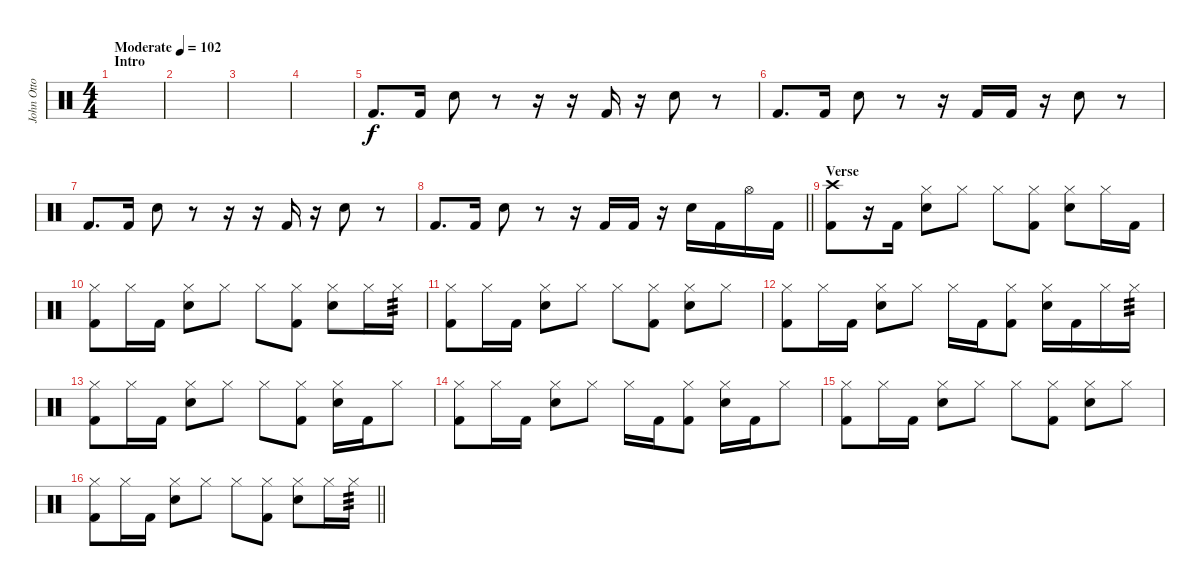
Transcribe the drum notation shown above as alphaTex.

\track ("John Otto (Drums)" "John Otto ") {instrument percussion}
\staff {score}
\articulation defaults
\ts (4 4)
\section ("" "Intro")
\tempo (102 "Moderate")
\clef neutral
\ks c
|
|
|
|
"Kick (hit) 2".8{d} "Kick (hit) 2".16 "Snare (hit) 2".8 r.8 r.16 r.16 "Kick (hit) 2".16 r.16 "Snare (hit) 2".8 r.8 |
"Kick (hit) 2".8{d} "Kick (hit) 2".16 "Snare (hit) 2".8 r.8 r.16 "Kick (hit) 2".16 "Kick (hit) 2".16 r.16 "Snare (hit) 2".8 r.8 |
"Kick (hit) 2".8{d} "Kick (hit) 2".16 "Snare (hit) 2".8 r.8 r.16 r.16 "Kick (hit) 2".16 r.16 "Snare (hit) 2".8 r.8 |
\barLineRight lightlight "Kick (hit) 2".8{d} "Kick (hit) 2".16 "Snare (hit) 2".8
r.8 r.16 "Kick (hit) 2".16 "Kick (hit) 2".16 r.16 "Snare (hit) 2".16 "Kick (hit) 2".16 "Hi-Hat (open)".16 "Kick (hit) 2".16 |
\section ("" "Verse")
("Crash high (hit)" "Kick (hit) 2").8{dy f} r.16 "Kick (hit) 2".16 ("Hi-Hat (closed)" "Snare (hit) 2").8 "Hi-Hat (closed)".8 "Hi-Hat (closed)".8 ("Hi-Hat (closed)" "Kick (hit) 2").8 ("Hi-Hat (closed)" "Snare (hit) 2").8 "Hi-Hat (closed)".16 "Kick (hit) 2".16 |
("Hi-Hat (closed)" "Kick (hit) 2").8 "Hi-Hat (closed)".16 "Kick (hit) 2".16 ("Hi-Hat (closed)" "Snare (hit) 2").8 "Hi-Hat (closed)".8 "Hi-Hat (closed)".8 ("Hi-Hat (closed)" "Kick (hit) 2").8 ("Hi-Hat (closed)" "Snare (hit) 2").8 "Hi-Hat (closed)".16 "Hi-Hat (closed)".16{tp 3} |
("Hi-Hat (closed)" "Kick (hit) 2").8 "Hi-Hat (closed)".16 "Kick (hit) 2".16 ("Hi-Hat (closed)" "Snare (hit) 2").8 "Hi-Hat (closed)".8 "Hi-Hat (closed)".8 ("Hi-Hat (closed)" "Kick (hit) 2").8 ("Hi-Hat (closed)" "Snare (hit) 2").8 "Hi-Hat (closed)".8 |
("Hi-Hat (closed)" "Kick (hit) 2").8 "Hi-Hat (closed)".16 "Kick (hit) 2".16 ("Hi-Hat (closed)" "Snare (hit) 2").8 "Hi-Hat (closed)".8 "Hi-Hat (closed)".16 "Kick (hit) 2".16 ("Hi-Hat (closed)" "Kick (hit) 2").8 ("Hi-Hat (closed)" "Snare (hit) 2").16 "Kick (hit) 2".16 "Hi-Hat (closed)".16 "Hi-Hat (closed)".16{tp 3} |
("Hi-Hat (closed)" "Kick (hit) 2").8 "Hi-Hat (closed)".16 "Kick (hit) 2".16 ("Hi-Hat (closed)" "Snare (hit) 2").8 "Hi-Hat (closed)".8 "Hi-Hat (closed)".8 ("Hi-Hat (closed)" "Kick (hit) 2").8 ("Hi-Hat (closed)" "Snare (hit) 2").16 "Kick (hit) 2".16 "Hi-Hat (closed)".8 |
("Hi-Hat (closed)" "Kick (hit) 2").8 "Hi-Hat (closed)".16 "Kick (hit) 2".16 ("Hi-Hat (closed)" "Snare (hit) 2").8 "Hi-Hat (closed)".8 "Hi-Hat (closed)".16 "Kick (hit) 2".16 ("Hi-Hat (closed)" "Kick (hit) 2").8 ("Hi-Hat (closed)" "Snare (hit) 2").16 "Kick (hit) 2".16 "Hi-Hat (closed)".8 |
("Hi-Hat (closed)" "Kick (hit) 2").8 "Hi-Hat (closed)".16 "Kick (hit) 2".16 ("Hi-Hat (closed)" "Snare (hit) 2").8 "Hi-Hat (closed)".8 "Hi-Hat (closed)".8 ("Hi-Hat (closed)" "Kick (hit) 2").8 ("Hi-Hat (closed)" "Snare (hit) 2").8 "Hi-Hat (closed)".8 |
\barLineRight lightlight
("Hi-Hat (closed)" "Kick (hit) 2").8 "Hi-Hat (closed)".16 "Kick (hit) 2".16 ("Hi-Hat (closed)" "Snare (hit) 2").8 "Hi-Hat (closed)".8 "Hi-Hat (closed)".8 ("Hi-Hat (closed)" "Kick (hit) 2").8 ("Hi-Hat (closed)" "Snare (hit) 2").8 "Hi-Hat (closed)".16 "Hi-Hat (closed)".16{tp 3}
